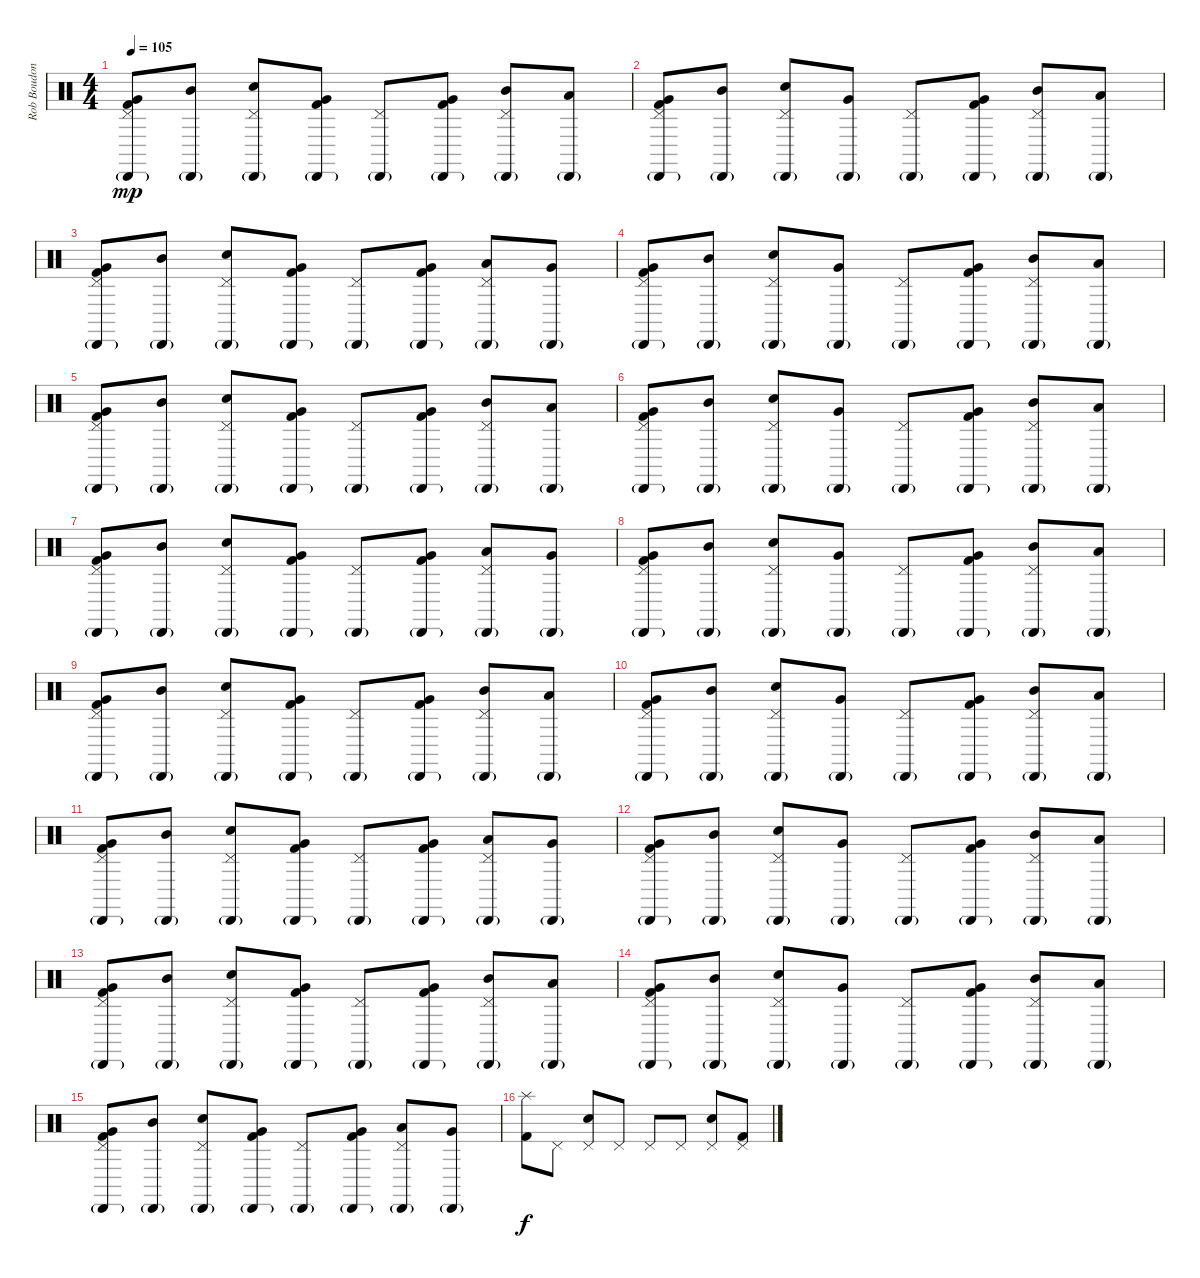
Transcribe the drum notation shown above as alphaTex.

\track ("Rob Boudon [Drums]" "Rob Boudon") {instrument percussion}
\staff {score}
\articulation defaults
\ts (4 4)
\tempo 105
\clef neutral
\ks c
("Cabasa (hit)"{g} "Pedal Hi-Hat (hit)" "Very Low Tom (hit)" "Kick (hit) 2").8{dy mp} ("Cabasa (hit)"{g} "Mid Tom (hit)").8 ("Cabasa (hit)"{g} "Pedal Hi-Hat (hit)" "Snare (hit) 2").8 ("Cabasa (hit)"{g} "Very Low Tom (hit)" "Kick (hit) 2").8 ("Cabasa (hit)"{g} "Pedal Hi-Hat (hit)").8 ("Cabasa (hit)"{g} "Very Low Tom (hit)" "Kick (hit) 2").8 ("Cabasa (hit)"{g} "Pedal Hi-Hat (hit)" "Mid Tom (hit)").8 ("Cabasa (hit)"{g} "Low Tom (hit)").8 |
("Cabasa (hit)"{g} "Pedal Hi-Hat (hit)" "Very Low Tom (hit)" "Kick (hit) 2").8 ("Cabasa (hit)"{g} "Mid Tom (hit)").8 ("Cabasa (hit)"{g} "Pedal Hi-Hat (hit)" "Snare (hit) 2").8 ("Cabasa (hit)"{g} "Very Low Tom (hit)").8 ("Cabasa (hit)"{g} "Pedal Hi-Hat (hit)").8 ("Cabasa (hit)"{g} "Very Low Tom (hit)" "Kick (hit) 2").8 ("Cabasa (hit)"{g} "Pedal Hi-Hat (hit)" "Mid Tom (hit)").8 ("Cabasa (hit)"{g} "Low Tom (hit)").8 |
("Cabasa (hit)"{g} "Pedal Hi-Hat (hit)" "Very Low Tom (hit)" "Kick (hit) 2").8 ("Cabasa (hit)"{g} "Mid Tom (hit)").8 ("Cabasa (hit)"{g} "Pedal Hi-Hat (hit)" "Snare (hit) 2").8 ("Cabasa (hit)"{g} "Very Low Tom (hit)" "Kick (hit) 2").8 ("Cabasa (hit)"{g} "Pedal Hi-Hat (hit)").8 ("Cabasa (hit)"{g} "Very Low Tom (hit)" "Kick (hit) 2").8 ("Cabasa (hit)"{g} "Pedal Hi-Hat (hit)" "Low Tom (hit)").8 ("Cabasa (hit)"{g} "Very Low Tom (hit)").8 |
("Cabasa (hit)"{g} "Pedal Hi-Hat (hit)" "Very Low Tom (hit)" "Kick (hit) 2").8 ("Cabasa (hit)"{g} "Mid Tom (hit)").8 ("Cabasa (hit)"{g} "Pedal Hi-Hat (hit)" "Snare (hit) 2").8 ("Cabasa (hit)"{g} "Very Low Tom (hit)").8 ("Cabasa (hit)"{g} "Pedal Hi-Hat (hit)").8 ("Cabasa (hit)"{g} "Very Low Tom (hit)" "Kick (hit) 2").8 ("Cabasa (hit)"{g} "Pedal Hi-Hat (hit)" "Mid Tom (hit)").8 ("Cabasa (hit)"{g} "Low Tom (hit)").8 |
("Cabasa (hit)"{g} "Pedal Hi-Hat (hit)" "Very Low Tom (hit)" "Kick (hit) 2").8 ("Cabasa (hit)"{g} "Mid Tom (hit)").8 ("Cabasa (hit)"{g} "Pedal Hi-Hat (hit)" "Snare (hit) 2").8 ("Cabasa (hit)"{g} "Very Low Tom (hit)" "Kick (hit) 2").8 ("Cabasa (hit)"{g} "Pedal Hi-Hat (hit)").8 ("Cabasa (hit)"{g} "Very Low Tom (hit)" "Kick (hit) 2").8 ("Cabasa (hit)"{g} "Pedal Hi-Hat (hit)" "Mid Tom (hit)").8 ("Cabasa (hit)"{g} "Low Tom (hit)").8 |
("Cabasa (hit)"{g} "Pedal Hi-Hat (hit)" "Very Low Tom (hit)" "Kick (hit) 2").8 ("Cabasa (hit)"{g} "Mid Tom (hit)").8 ("Cabasa (hit)"{g} "Pedal Hi-Hat (hit)" "Snare (hit) 2").8 ("Cabasa (hit)"{g} "Very Low Tom (hit)").8 ("Cabasa (hit)"{g} "Pedal Hi-Hat (hit)").8 ("Cabasa (hit)"{g} "Very Low Tom (hit)" "Kick (hit) 2").8 ("Cabasa (hit)"{g} "Pedal Hi-Hat (hit)" "Mid Tom (hit)").8 ("Cabasa (hit)"{g} "Low Tom (hit)").8 |
("Cabasa (hit)"{g} "Pedal Hi-Hat (hit)" "Very Low Tom (hit)" "Kick (hit) 2").8 ("Cabasa (hit)"{g} "Mid Tom (hit)").8 ("Cabasa (hit)"{g} "Pedal Hi-Hat (hit)" "Snare (hit) 2").8 ("Cabasa (hit)"{g} "Very Low Tom (hit)" "Kick (hit) 2").8 ("Cabasa (hit)"{g} "Pedal Hi-Hat (hit)").8 ("Cabasa (hit)"{g} "Very Low Tom (hit)" "Kick (hit) 2").8 ("Cabasa (hit)"{g} "Pedal Hi-Hat (hit)" "Low Tom (hit)").8 ("Cabasa (hit)"{g} "Very Low Tom (hit)").8 |
("Cabasa (hit)"{g} "Pedal Hi-Hat (hit)" "Very Low Tom (hit)" "Kick (hit) 2").8 ("Cabasa (hit)"{g} "Mid Tom (hit)").8 ("Cabasa (hit)"{g} "Pedal Hi-Hat (hit)" "Snare (hit) 2").8 ("Cabasa (hit)"{g} "Very Low Tom (hit)").8 ("Cabasa (hit)"{g} "Pedal Hi-Hat (hit)").8 ("Cabasa (hit)"{g} "Very Low Tom (hit)" "Kick (hit) 2").8 ("Cabasa (hit)"{g} "Pedal Hi-Hat (hit)" "Mid Tom (hit)").8 ("Cabasa (hit)"{g} "Low Tom (hit)").8 |
("Cabasa (hit)"{g} "Pedal Hi-Hat (hit)" "Very Low Tom (hit)" "Kick (hit) 2").8 ("Cabasa (hit)"{g} "Mid Tom (hit)").8 ("Cabasa (hit)"{g} "Pedal Hi-Hat (hit)" "Snare (hit) 2").8 ("Cabasa (hit)"{g} "Very Low Tom (hit)" "Kick (hit) 2").8 ("Cabasa (hit)"{g} "Pedal Hi-Hat (hit)").8 ("Cabasa (hit)"{g} "Very Low Tom (hit)" "Kick (hit) 2").8 ("Cabasa (hit)"{g} "Pedal Hi-Hat (hit)" "Mid Tom (hit)").8 ("Cabasa (hit)"{g} "Low Tom (hit)").8 |
("Cabasa (hit)"{g} "Pedal Hi-Hat (hit)" "Very Low Tom (hit)" "Kick (hit) 2").8 ("Cabasa (hit)"{g} "Mid Tom (hit)").8 ("Cabasa (hit)"{g} "Pedal Hi-Hat (hit)" "Snare (hit) 2").8 ("Cabasa (hit)"{g} "Very Low Tom (hit)").8 ("Cabasa (hit)"{g} "Pedal Hi-Hat (hit)").8 ("Cabasa (hit)"{g} "Very Low Tom (hit)" "Kick (hit) 2").8 ("Cabasa (hit)"{g} "Pedal Hi-Hat (hit)" "Mid Tom (hit)").8 ("Cabasa (hit)"{g} "Low Tom (hit)").8 |
("Cabasa (hit)"{g} "Pedal Hi-Hat (hit)" "Very Low Tom (hit)" "Kick (hit) 2").8 ("Cabasa (hit)"{g} "Mid Tom (hit)").8 ("Cabasa (hit)"{g} "Pedal Hi-Hat (hit)" "Snare (hit) 2").8 ("Cabasa (hit)"{g} "Very Low Tom (hit)" "Kick (hit) 2").8 ("Cabasa (hit)"{g} "Pedal Hi-Hat (hit)").8 ("Cabasa (hit)"{g} "Very Low Tom (hit)" "Kick (hit) 2").8 ("Cabasa (hit)"{g} "Pedal Hi-Hat (hit)" "Low Tom (hit)").8 ("Cabasa (hit)"{g} "Very Low Tom (hit)").8 |
("Cabasa (hit)"{g} "Pedal Hi-Hat (hit)" "Very Low Tom (hit)" "Kick (hit) 2").8 ("Cabasa (hit)"{g} "Mid Tom (hit)").8 ("Cabasa (hit)"{g} "Pedal Hi-Hat (hit)" "Snare (hit) 2").8 ("Cabasa (hit)"{g} "Very Low Tom (hit)").8 ("Cabasa (hit)"{g} "Pedal Hi-Hat (hit)").8 ("Cabasa (hit)"{g} "Very Low Tom (hit)" "Kick (hit) 2").8 ("Cabasa (hit)"{g} "Pedal Hi-Hat (hit)" "Mid Tom (hit)").8 ("Cabasa (hit)"{g} "Low Tom (hit)").8 |
("Cabasa (hit)"{g} "Pedal Hi-Hat (hit)" "Very Low Tom (hit)" "Kick (hit) 2").8 ("Cabasa (hit)"{g} "Mid Tom (hit)").8 ("Cabasa (hit)"{g} "Pedal Hi-Hat (hit)" "Snare (hit) 2").8 ("Cabasa (hit)"{g} "Very Low Tom (hit)" "Kick (hit) 2").8 ("Cabasa (hit)"{g} "Pedal Hi-Hat (hit)").8 ("Cabasa (hit)"{g} "Very Low Tom (hit)" "Kick (hit) 2").8 ("Cabasa (hit)"{g} "Pedal Hi-Hat (hit)" "Mid Tom (hit)").8 ("Cabasa (hit)"{g} "Low Tom (hit)").8 |
("Cabasa (hit)"{g} "Pedal Hi-Hat (hit)" "Very Low Tom (hit)" "Kick (hit) 2").8 ("Cabasa (hit)"{g} "Mid Tom (hit)").8 ("Cabasa (hit)"{g} "Pedal Hi-Hat (hit)" "Snare (hit) 2").8 ("Cabasa (hit)"{g} "Very Low Tom (hit)").8 ("Cabasa (hit)"{g} "Pedal Hi-Hat (hit)").8 ("Cabasa (hit)"{g} "Very Low Tom (hit)" "Kick (hit) 2").8 ("Cabasa (hit)"{g} "Pedal Hi-Hat (hit)" "Mid Tom (hit)").8 ("Cabasa (hit)"{g} "Low Tom (hit)").8 |
("Cabasa (hit)"{g} "Pedal Hi-Hat (hit)" "Very Low Tom (hit)" "Kick (hit) 2").8 ("Cabasa (hit)"{g} "Mid Tom (hit)").8 ("Cabasa (hit)"{g} "Pedal Hi-Hat (hit)" "Snare (hit) 2").8 ("Cabasa (hit)"{g} "Very Low Tom (hit)" "Kick (hit) 2").8 ("Cabasa (hit)"{g} "Pedal Hi-Hat (hit)").8 ("Cabasa (hit)"{g} "Very Low Tom (hit)" "Kick (hit) 2").8 ("Cabasa (hit)"{g} "Pedal Hi-Hat (hit)" "Low Tom (hit)").8 ("Cabasa (hit)"{g} "Very Low Tom (hit)").8 |
("Splash (hit)" "Kick (hit) 2").8{dy f} "Pedal Hi-Hat (hit)".8 ("Pedal Hi-Hat (hit)" "Snare (hit) 2").8 "Pedal Hi-Hat (hit)".8 "Pedal Hi-Hat (hit)".8 "Pedal Hi-Hat (hit)".8 ("Pedal Hi-Hat (hit)" "Snare (hit) 2").8 ("Pedal Hi-Hat (hit)" "Kick (hit) 2").8
